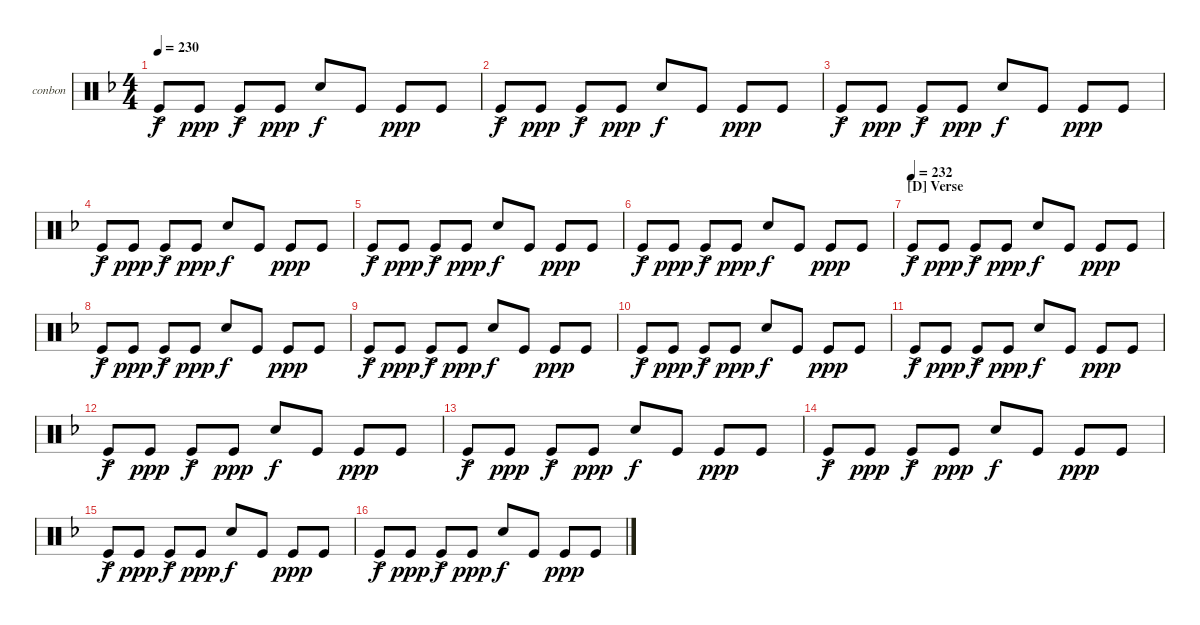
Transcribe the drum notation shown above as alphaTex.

\defaultSystemsLayout 4
\bracketExtendMode groupsimilarinstruments
\firstSystemTrackNameOrientation horizontal
\otherSystemsTrackNameOrientation horizontal
\track ("Bongos N Congas" "conbon") {instrument percussion}
\staff {score}
\articulation defaults
\ts (4 4)
\tempo 230
\clef neutral
\ks dminor "Kick (hit)"{ac}.8{dy f} "Kick (hit)".8{dy ppp} "Kick (hit)"{ac}.8{dy f} "Kick (hit)".8{dy ppp} "Snare (hit) 2".8{dy f} "Kick (hit)".8 "Kick (hit)".8{dy ppp} "Kick (hit)".8
|
"Kick (hit)"{ac}.8{dy f} "Kick (hit)".8{dy ppp} "Kick (hit)"{ac}.8{dy f} "Kick (hit)".8{dy ppp} "Snare (hit) 2".8{dy f} "Kick (hit)".8 "Kick (hit)".8{dy ppp} "Kick (hit)".8 |
"Kick (hit)"{ac}.8{dy f} "Kick (hit)".8{dy ppp} "Kick (hit)"{ac}.8{dy f} "Kick (hit)".8{dy ppp} "Snare (hit) 2".8{dy f} "Kick (hit)".8 "Kick (hit)".8{dy ppp} "Kick (hit)".8 |
"Kick (hit)"{ac}.8{dy f} "Kick (hit)".8{dy ppp} "Kick (hit)"{ac}.8{dy f} "Kick (hit)".8{dy ppp} "Snare (hit) 2".8{dy f} "Kick (hit)".8 "Kick (hit)".8{dy ppp} "Kick (hit)".8 |
"Kick (hit)"{ac}.8{dy f} "Kick (hit)".8{dy ppp} "Kick (hit)"{ac}.8{dy f} "Kick (hit)".8{dy ppp} "Snare (hit) 2".8{dy f} "Kick (hit)".8 "Kick (hit)".8{dy ppp} "Kick (hit)".8 |
"Kick (hit)"{ac}.8{dy f} "Kick (hit)".8{dy ppp} "Kick (hit)"{ac}.8{dy f} "Kick (hit)".8{dy ppp} "Snare (hit) 2".8{dy f} "Kick (hit)".8 "Kick (hit)".8{dy ppp} "Kick (hit)".8 |
\section ("D" "Verse")
\tempo (232)
"Kick (hit)"{ac}.8{dy f} "Kick (hit)".8{dy ppp} "Kick (hit)"{ac}.8{dy f} "Kick (hit)".8{dy ppp} "Snare (hit) 2".8{dy f} "Kick (hit)".8 "Kick (hit)".8{dy ppp} "Kick (hit)".8 |
"Kick (hit)"{ac}.8{dy f} "Kick (hit)".8{dy ppp} "Kick (hit)"{ac}.8{dy f} "Kick (hit)".8{dy ppp} "Snare (hit) 2".8{dy f} "Kick (hit)".8 "Kick (hit)".8{dy ppp} "Kick (hit)".8 |
"Kick (hit)"{ac}.8{dy f} "Kick (hit)".8{dy ppp} "Kick (hit)"{ac}.8{dy f} "Kick (hit)".8{dy ppp} "Snare (hit) 2".8{dy f} "Kick (hit)".8 "Kick (hit)".8{dy ppp} "Kick (hit)".8 |
"Kick (hit)"{ac}.8{dy f} "Kick (hit)".8{dy ppp} "Kick (hit)"{ac}.8{dy f} "Kick (hit)".8{dy ppp} "Snare (hit) 2".8{dy f} "Kick (hit)".8 "Kick (hit)".8{dy ppp} "Kick (hit)".8 |
"Kick (hit)"{ac}.8{dy f} "Kick (hit)".8{dy ppp} "Kick (hit)"{ac}.8{dy f} "Kick (hit)".8{dy ppp} "Snare (hit) 2".8{dy f} "Kick (hit)".8 "Kick (hit)".8{dy ppp} "Kick (hit)".8 |
"Kick (hit)"{ac}.8{dy f} "Kick (hit)".8{dy ppp} "Kick (hit)"{ac}.8{dy f} "Kick (hit)".8{dy ppp} "Snare (hit) 2".8{dy f} "Kick (hit)".8 "Kick (hit)".8{dy ppp} "Kick (hit)".8 |
"Kick (hit)"{ac}.8{dy f} "Kick (hit)".8{dy ppp} "Kick (hit)"{ac}.8{dy f} "Kick (hit)".8{dy ppp} "Snare (hit) 2".8{dy f} "Kick (hit)".8 "Kick (hit)".8{dy ppp} "Kick (hit)".8 |
"Kick (hit)"{ac}.8{dy f} "Kick (hit)".8{dy ppp} "Kick (hit)"{ac}.8{dy f} "Kick (hit)".8{dy ppp} "Snare (hit) 2".8{dy f} "Kick (hit)".8 "Kick (hit)".8{dy ppp} "Kick (hit)".8 |
"Kick (hit)"{ac}.8{dy f} "Kick (hit)".8{dy ppp} "Kick (hit)"{ac}.8{dy f} "Kick (hit)".8{dy ppp} "Snare (hit) 2".8{dy f} "Kick (hit)".8 "Kick (hit)".8{dy ppp} "Kick (hit)".8 |
"Kick (hit)"{ac}.8{dy f} "Kick (hit)".8{dy ppp} "Kick (hit)"{ac}.8{dy f} "Kick (hit)".8{dy ppp} "Snare (hit) 2".8{dy f} "Kick (hit)".8 "Kick (hit)".8{dy ppp} "Kick (hit)".8
